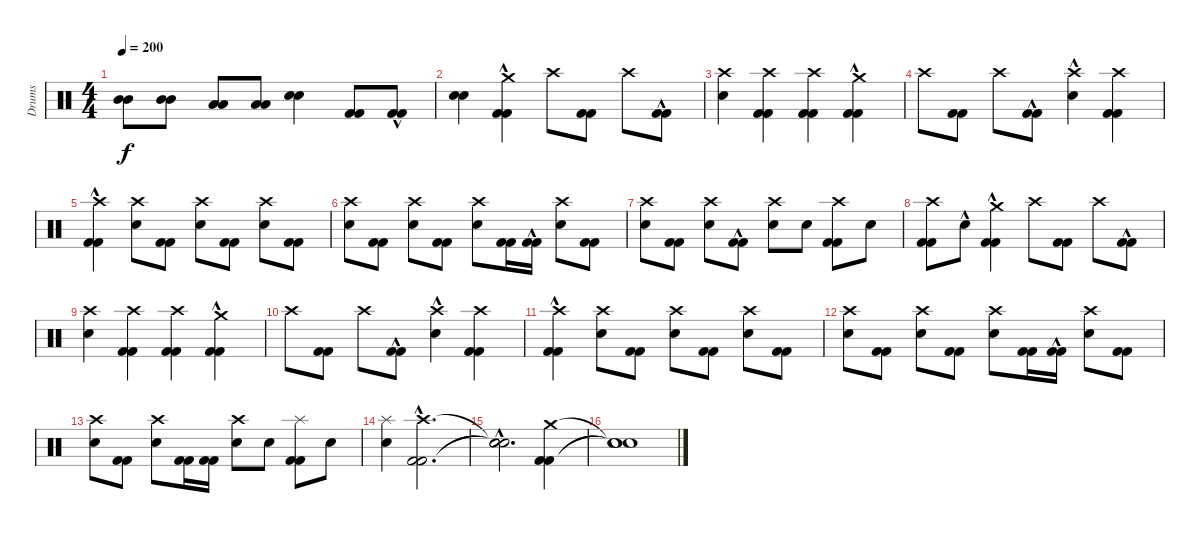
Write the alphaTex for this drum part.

\track ("Drums" "Drums") {instrument percussion}
\staff {score}
\articulation defaults
\ts (4 4)
\tempo 200
\clef neutral
\ks c
("Mid Tom (hit)" "Mid Tom (hit)").8{dy f} ("Mid Tom (hit)" "Mid Tom (hit)").8 ("Low Tom (hit)" "Low Tom (hit)").8 ("Low Tom (hit)" "Low Tom (hit)").8 ("Electric Snare (hit)" "Electric Snare (hit)").4 ("Kick (hit) 2" "Kick (hit) 2").8 ("Kick (hit) 2"{hac} "Kick (hit) 2"{hac}).8 |
("Electric Snare (hit)" "Electric Snare (hit)").4 ("Kick (hit) 2"{hac} "Kick (hit) 2"{hac} "Crash medium (hit)").4 "Crash high (hit)".8 ("Kick (hit) 2" "Kick (hit) 2").8 "Crash high (hit)".8 ("Kick (hit) 2"{hac} "Kick (hit) 2"{hac}).8 |
("Electric Snare (hit)" "Crash high (hit)").4 ("Kick (hit) 2" "Kick (hit) 2" "Crash high (hit)").4 ("Kick (hit) 2" "Kick (hit) 2" "Crash high (hit)").4 ("Kick (hit) 2"{hac} "Kick (hit) 2"{hac} "Crash medium (hit)").4 |
"Crash high (hit)".8 ("Kick (hit) 2" "Kick (hit) 2").8 "Crash high (hit)".8 ("Kick (hit) 2"{hac} "Kick (hit) 2"{hac}).8 ("Electric Snare (hit)"{hac} "Crash high (hit)").4 ("Kick (hit) 2" "Kick (hit) 2" "Crash high (hit)").4 |
("Kick (hit) 2"{hac} "Kick (hit) 2"{hac} "Crash high (hit)").4 ("Electric Snare (hit)" "Crash high (hit)").8 ("Kick (hit) 2" "Kick (hit) 2").8 ("Electric Snare (hit)" "Crash high (hit)").8 ("Kick (hit) 2" "Kick (hit) 2").8 ("Electric Snare (hit)" "Crash high (hit)").8 ("Kick (hit) 2" "Kick (hit) 2").8 |
("Electric Snare (hit)" "Crash high (hit)").8 ("Kick (hit) 2" "Kick (hit) 2").8 ("Electric Snare (hit)" "Crash high (hit)").8 ("Kick (hit) 2" "Kick (hit) 2").8 ("Electric Snare (hit)" "Crash high (hit)").8 ("Kick (hit) 2" "Kick (hit) 2").16 ("Kick (hit) 2"{hac} "Kick (hit) 2"{hac}).16 ("Electric Snare (hit)" "Crash high (hit)").8 ("Kick (hit) 2" "Kick (hit) 2").8 |
("Electric Snare (hit)" "Crash high (hit)").8 ("Kick (hit) 2" "Kick (hit) 2").8 ("Electric Snare (hit)" "Crash high (hit)").8 ("Kick (hit) 2"{hac} "Kick (hit) 2"{hac}).8 ("Electric Snare (hit)" "Crash high (hit)").8 "Electric Snare (hit)".8 ("Kick (hit) 2" "Kick (hit) 2" "Crash high (hit)").8 "Electric Snare (hit)".8 |
("Kick (hit) 2" "Kick (hit) 2" "Crash high (hit)").8 "Electric Snare (hit)"{hac}.8 ("Kick (hit) 2"{hac} "Kick (hit) 2"{hac} "Crash medium (hit)").4 "Crash high (hit)".8 ("Kick (hit) 2" "Kick (hit) 2").8 "Crash high (hit)".8 ("Kick (hit) 2"{hac} "Kick (hit) 2"{hac}).8 |
("Electric Snare (hit)" "Crash high (hit)").4 ("Kick (hit) 2" "Kick (hit) 2" "Crash high (hit)").4 ("Kick (hit) 2" "Kick (hit) 2" "Crash high (hit)").4 ("Kick (hit) 2"{hac} "Kick (hit) 2"{hac} "Crash medium (hit)").4 |
"Crash high (hit)".8 ("Kick (hit) 2" "Kick (hit) 2").8 "Crash high (hit)".8 ("Kick (hit) 2"{hac} "Kick (hit) 2"{hac}).8 ("Electric Snare (hit)"{hac} "Crash high (hit)").4 ("Kick (hit) 2" "Kick (hit) 2" "Crash high (hit)").4 |
("Kick (hit) 2"{hac} "Kick (hit) 2"{hac} "Crash high (hit)").4 ("Electric Snare (hit)" "Crash high (hit)").8 ("Kick (hit) 2" "Kick (hit) 2").8 ("Electric Snare (hit)" "Crash high (hit)").8 ("Kick (hit) 2" "Kick (hit) 2").8 ("Electric Snare (hit)" "Crash high (hit)").8 ("Kick (hit) 2" "Kick (hit) 2").8 |
("Electric Snare (hit)" "Crash high (hit)").8 ("Kick (hit) 2" "Kick (hit) 2").8 ("Electric Snare (hit)" "Crash high (hit)").8 ("Kick (hit) 2" "Kick (hit) 2").8 ("Electric Snare (hit)" "Crash high (hit)").8 ("Kick (hit) 2" "Kick (hit) 2").16 ("Kick (hit) 2"{hac} "Kick (hit) 2"{hac}).16 ("Electric Snare (hit)" "Crash high (hit)").8 ("Kick (hit) 2" "Kick (hit) 2").8 |
("Electric Snare (hit)" "Crash high (hit)").8 ("Kick (hit) 2" "Kick (hit) 2").8 ("Electric Snare (hit)" "Crash high (hit)").8 ("Kick (hit) 2" "Kick (hit) 2").16 ("Kick (hit) 2" "Kick (hit) 2").16 ("Electric Snare (hit)" "Crash high (hit)").8 "Electric Snare (hit)".8 ("Kick (hit) 2" "Kick (hit) 2" "Splash (hit)").8 "Electric Snare (hit)".8 |
("Electric Snare (hit)" "Splash (hit)").4 ("Kick (hit) 2"{hac} "Kick (hit) 2"{hac} "Crash high (hit)"{hac}).2{d} |
("Snare (hit)"{hac t} "Snare (hit)"{hac t} "Snare (hit)"{hac t}).2{d} ("Kick (hit) 2" "Kick (hit) 2" "Crash medium (hit)").4 |
("Snare (hit)"{t} "Snare (hit)"{t} "Snare (hit)"{t}).1
